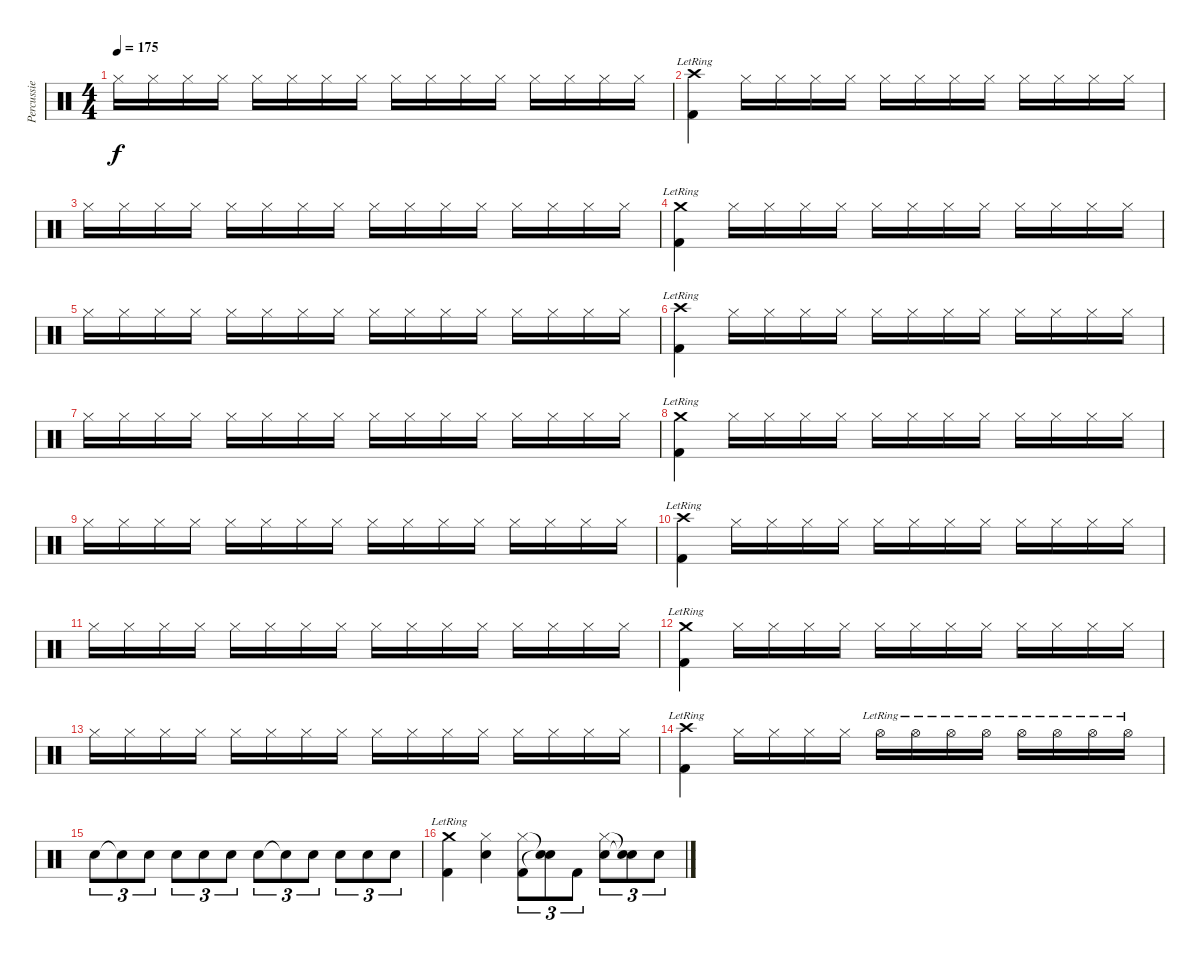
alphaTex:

\track ("Percussie" "Percussie") {instrument percussion}
\staff {score}
\articulation defaults
\ts (4 4)
\tempo 175
\clef neutral
\ks c "Hi-Hat (closed)".16{dy f} "Hi-Hat (closed)".16 "Hi-Hat (closed)".16 "Hi-Hat (closed)".16 "Hi-Hat (closed)".16 "Hi-Hat (closed)".16 "Hi-Hat (closed)".16 "Hi-Hat (closed)".16 "Hi-Hat (closed)".16 "Hi-Hat (closed)".16 "Hi-Hat (closed)".16 "Hi-Hat (closed)".16 "Hi-Hat (closed)".16 "Hi-Hat (closed)".16 "Hi-Hat (closed)".16 "Hi-Hat (closed)".16
|
("Crash high (hit)"{lr} "Kick (hit) 2").4 "Hi-Hat (closed)".16 "Hi-Hat (closed)".16 "Hi-Hat (closed)".16 "Hi-Hat (closed)".16 "Hi-Hat (closed)".16 "Hi-Hat (closed)".16 "Hi-Hat (closed)".16 "Hi-Hat (closed)".16 "Hi-Hat (closed)".16 "Hi-Hat (closed)".16 "Hi-Hat (closed)".16 "Hi-Hat (closed)".16 |
"Hi-Hat (closed)".16 "Hi-Hat (closed)".16 "Hi-Hat (closed)".16 "Hi-Hat (closed)".16 "Hi-Hat (closed)".16 "Hi-Hat (closed)".16 "Hi-Hat (closed)".16 "Hi-Hat (closed)".16 "Hi-Hat (closed)".16 "Hi-Hat (closed)".16 "Hi-Hat (closed)".16 "Hi-Hat (closed)".16 "Hi-Hat (closed)".16 "Hi-Hat (closed)".16 "Hi-Hat (closed)".16 "Hi-Hat (closed)".16 |
("Crash medium (hit)"{lr} "Kick (hit) 2").4 "Hi-Hat (closed)".16 "Hi-Hat (closed)".16 "Hi-Hat (closed)".16 "Hi-Hat (closed)".16 "Hi-Hat (closed)".16 "Hi-Hat (closed)".16 "Hi-Hat (closed)".16 "Hi-Hat (closed)".16 "Hi-Hat (closed)".16 "Hi-Hat (closed)".16 "Hi-Hat (closed)".16 "Hi-Hat (closed)".16 |
"Hi-Hat (closed)".16 "Hi-Hat (closed)".16 "Hi-Hat (closed)".16 "Hi-Hat (closed)".16 "Hi-Hat (closed)".16 "Hi-Hat (closed)".16 "Hi-Hat (closed)".16 "Hi-Hat (closed)".16 "Hi-Hat (closed)".16 "Hi-Hat (closed)".16 "Hi-Hat (closed)".16 "Hi-Hat (closed)".16 "Hi-Hat (closed)".16 "Hi-Hat (closed)".16 "Hi-Hat (closed)".16 "Hi-Hat (closed)".16 |
("Crash high (hit)"{lr} "Kick (hit) 2").4 "Hi-Hat (closed)".16 "Hi-Hat (closed)".16 "Hi-Hat (closed)".16 "Hi-Hat (closed)".16 "Hi-Hat (closed)".16 "Hi-Hat (closed)".16 "Hi-Hat (closed)".16 "Hi-Hat (closed)".16 "Hi-Hat (closed)".16 "Hi-Hat (closed)".16 "Hi-Hat (closed)".16 "Hi-Hat (closed)".16 |
"Hi-Hat (closed)".16 "Hi-Hat (closed)".16 "Hi-Hat (closed)".16 "Hi-Hat (closed)".16 "Hi-Hat (closed)".16 "Hi-Hat (closed)".16 "Hi-Hat (closed)".16 "Hi-Hat (closed)".16 "Hi-Hat (closed)".16 "Hi-Hat (closed)".16 "Hi-Hat (closed)".16 "Hi-Hat (closed)".16 "Hi-Hat (closed)".16 "Hi-Hat (closed)".16 "Hi-Hat (closed)".16 "Hi-Hat (closed)".16 |
("Crash medium (hit)"{lr} "Kick (hit) 2").4 "Hi-Hat (closed)".16 "Hi-Hat (closed)".16 "Hi-Hat (closed)".16 "Hi-Hat (closed)".16 "Hi-Hat (closed)".16 "Hi-Hat (closed)".16 "Hi-Hat (closed)".16 "Hi-Hat (closed)".16 "Hi-Hat (closed)".16 "Hi-Hat (closed)".16 "Hi-Hat (closed)".16 "Hi-Hat (closed)".16 |
"Hi-Hat (closed)".16 "Hi-Hat (closed)".16 "Hi-Hat (closed)".16 "Hi-Hat (closed)".16 "Hi-Hat (closed)".16 "Hi-Hat (closed)".16 "Hi-Hat (closed)".16 "Hi-Hat (closed)".16 "Hi-Hat (closed)".16 "Hi-Hat (closed)".16 "Hi-Hat (closed)".16 "Hi-Hat (closed)".16 "Hi-Hat (closed)".16 "Hi-Hat (closed)".16 "Hi-Hat (closed)".16 "Hi-Hat (closed)".16 |
("Crash high (hit)"{lr} "Kick (hit) 2").4 "Hi-Hat (closed)".16 "Hi-Hat (closed)".16 "Hi-Hat (closed)".16 "Hi-Hat (closed)".16 "Hi-Hat (closed)".16 "Hi-Hat (closed)".16 "Hi-Hat (closed)".16 "Hi-Hat (closed)".16 "Hi-Hat (closed)".16 "Hi-Hat (closed)".16 "Hi-Hat (closed)".16 "Hi-Hat (closed)".16 |
"Hi-Hat (closed)".16 "Hi-Hat (closed)".16 "Hi-Hat (closed)".16 "Hi-Hat (closed)".16 "Hi-Hat (closed)".16 "Hi-Hat (closed)".16 "Hi-Hat (closed)".16 "Hi-Hat (closed)".16 "Hi-Hat (closed)".16 "Hi-Hat (closed)".16 "Hi-Hat (closed)".16 "Hi-Hat (closed)".16 "Hi-Hat (closed)".16 "Hi-Hat (closed)".16 "Hi-Hat (closed)".16 "Hi-Hat (closed)".16 |
("Crash medium (hit)"{lr} "Kick (hit) 2").4 "Hi-Hat (closed)".16 "Hi-Hat (closed)".16 "Hi-Hat (closed)".16 "Hi-Hat (closed)".16 "Hi-Hat (closed)".16 "Hi-Hat (closed)".16 "Hi-Hat (closed)".16 "Hi-Hat (closed)".16 "Hi-Hat (closed)".16 "Hi-Hat (closed)".16 "Hi-Hat (closed)".16 "Hi-Hat (closed)".16 |
"Hi-Hat (closed)".16 "Hi-Hat (closed)".16 "Hi-Hat (closed)".16 "Hi-Hat (closed)".16 "Hi-Hat (closed)".16 "Hi-Hat (closed)".16 "Hi-Hat (closed)".16 "Hi-Hat (closed)".16 "Hi-Hat (closed)".16 "Hi-Hat (closed)".16 "Hi-Hat (closed)".16 "Hi-Hat (closed)".16 "Hi-Hat (closed)".16 "Hi-Hat (closed)".16 "Hi-Hat (closed)".16 "Hi-Hat (closed)".16 |
("Crash high (hit)"{lr} "Kick (hit) 2").4 "Hi-Hat (closed)".16 "Hi-Hat (closed)".16 "Hi-Hat (closed)".16 "Hi-Hat (closed)".16 "Hi-Hat (open)"{lr}.16 "Hi-Hat (open)"{lr}.16 "Hi-Hat (open)"{lr}.16 "Hi-Hat (open)"{lr}.16 "Hi-Hat (open)"{lr}.16 "Hi-Hat (open)"{lr}.16 "Hi-Hat (open)"{lr}.16 "Hi-Hat (open)"{lr}.16 |
"Snare (hit) 2".8{tu (3 2)} "Snare (hit)"{t}.8{tu (3 2)} "Snare (hit) 2".8{tu (3 2)} "Snare (hit) 2".8{tu (3 2)} "Snare (hit) 2".8{tu (3 2)} "Snare (hit) 2".8{tu (3 2)} "Snare (hit) 2".8{tu (3 2)} "Snare (hit)"{t}.8{tu (3 2)} "Snare (hit) 2".8{tu (3 2)} "Snare (hit) 2".8{tu (3 2)} "Snare (hit) 2".8{tu (3 2)} "Snare (hit) 2".8{tu (3 2)} |
("Crash medium (hit)"{lr} "Kick (hit) 2").4 ("Hi-Hat (closed)" "Snare (hit) 2").4 ("Hi-Hat (closed)" "Kick (hit) 2").8{tu (3 2)} ("Snare (hit)"{t} "Snare (hit)"{t}).8{tu (3 2)} "Kick (hit) 2".8{tu (3 2)} ("Hi-Hat (closed)" "Snare (hit) 2").8{tu (3 2)} ("Snare (hit)"{t} "Snare (hit)"{t}).8{tu (3 2)} "Snare (hit) 2".8{tu (3 2)}
